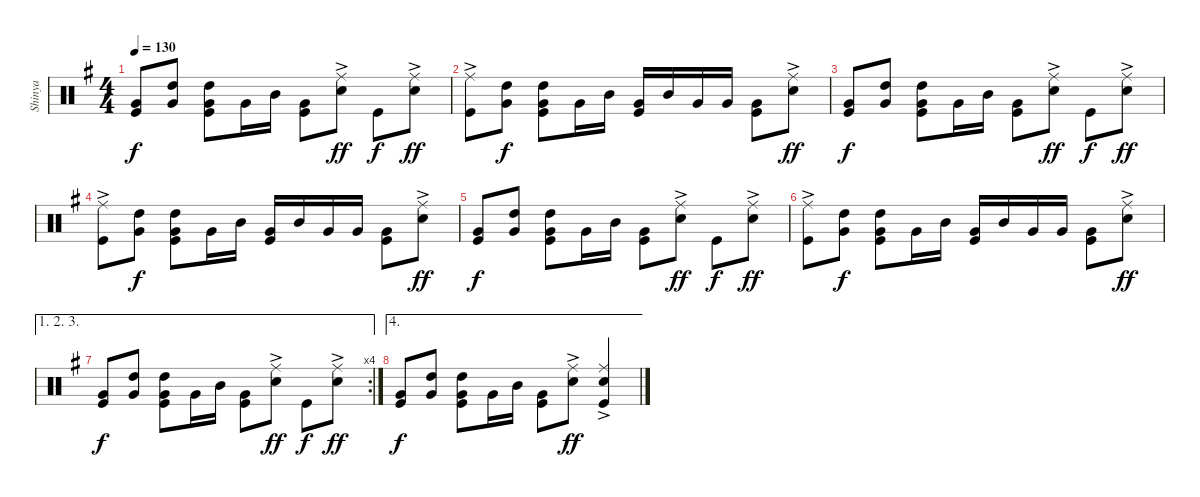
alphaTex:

\track ("Shinya" "Shinya") {instrument percussion}
\staff {score}
\articulation defaults
\ts (4 4)
\tempo 130
\clef neutral
\ks eminor
("Very Low Tom (hit)" "Kick (hit)").8{dy f} ("High Tom (hit)" "Very Low Tom (hit)").8 ("High Tom (hit)" "Very Low Tom (hit)" "Kick (hit)").8 "Very Low Tom (hit)".16 "Mid Tom (hit)".16 ("Very Low Tom (hit)" "Kick (hit)").8 ("Ride (middle)"{ac} "Snare (hit) 2").8{dy ff} "Kick (hit)".8{dy f} ("Ride (middle)"{ac} "Snare (hit) 2").8{dy ff} |
("Ride (middle)"{ac} "Kick (hit)").8 ("High Tom (hit)" "Very Low Tom (hit)").8{dy f} ("High Tom (hit)" "Very Low Tom (hit)" "Kick (hit)").8 "Very Low Tom (hit)".16 "Mid Tom (hit)".16 ("Very Low Tom (hit)" "Kick (hit)").16 "Mid Tom (hit)".16 "Very Low Tom (hit)".16 "Very Low Tom (hit)".16 ("Very Low Tom (hit)" "Kick (hit)").8 ("Ride (middle)"{ac} "Snare (hit) 2").8{dy ff} |
("Very Low Tom (hit)" "Kick (hit)").8{dy f} ("High Tom (hit)" "Very Low Tom (hit)").8 ("High Tom (hit)" "Very Low Tom (hit)" "Kick (hit)").8 "Very Low Tom (hit)".16 "Mid Tom (hit)".16 ("Very Low Tom (hit)" "Kick (hit)").8 ("Ride (middle)"{ac} "Snare (hit) 2").8{dy ff} "Kick (hit)".8{dy f} ("Ride (middle)"{ac} "Snare (hit) 2").8{dy ff} |
("Ride (middle)"{ac} "Kick (hit)").8 ("High Tom (hit)" "Very Low Tom (hit)").8{dy f} ("High Tom (hit)" "Very Low Tom (hit)" "Kick (hit)").8 "Very Low Tom (hit)".16 "Mid Tom (hit)".16 ("Very Low Tom (hit)" "Kick (hit)").16 "Mid Tom (hit)".16 "Very Low Tom (hit)".16 "Very Low Tom (hit)".16 ("Very Low Tom (hit)" "Kick (hit)").8 ("Ride (middle)"{ac} "Snare (hit) 2").8{dy ff} |
("Very Low Tom (hit)" "Kick (hit)").8{dy f} ("High Tom (hit)" "Very Low Tom (hit)").8 ("High Tom (hit)" "Very Low Tom (hit)" "Kick (hit)").8 "Very Low Tom (hit)".16 "Mid Tom (hit)".16 ("Very Low Tom (hit)" "Kick (hit)").8 ("Ride (middle)"{ac} "Snare (hit) 2").8{dy ff} "Kick (hit)".8{dy f} ("Ride (middle)"{ac} "Snare (hit) 2").8{dy ff} |
("Ride (middle)"{ac} "Kick (hit)").8 ("High Tom (hit)" "Very Low Tom (hit)").8{dy f} ("High Tom (hit)" "Very Low Tom (hit)" "Kick (hit)").8 "Very Low Tom (hit)".16 "Mid Tom (hit)".16 ("Very Low Tom (hit)" "Kick (hit)").16 "Mid Tom (hit)".16 "Very Low Tom (hit)".16 "Very Low Tom (hit)".16 ("Very Low Tom (hit)" "Kick (hit)").8 ("Ride (middle)"{ac} "Snare (hit) 2").8{dy ff} |
\ae (1 2 3)
\rc 4
("Very Low Tom (hit)" "Kick (hit)").8{dy f} ("High Tom (hit)" "Very Low Tom (hit)").8 ("High Tom (hit)" "Very Low Tom (hit)" "Kick (hit)").8 "Very Low Tom (hit)".16 "Mid Tom (hit)".16 ("Very Low Tom (hit)" "Kick (hit)").8 ("Ride (middle)"{ac} "Snare (hit) 2").8{dy ff} "Kick (hit)".8{dy f} ("Ride (middle)"{ac} "Snare (hit) 2").8{dy ff} |
\ae 4
("Very Low Tom (hit)" "Kick (hit)").8{dy f} ("High Tom (hit)" "Very Low Tom (hit)").8 ("High Tom (hit)" "Very Low Tom (hit)" "Kick (hit)").8 "Very Low Tom (hit)".16 "Mid Tom (hit)".16 ("Very Low Tom (hit)" "Kick (hit)").8 ("Ride (middle)"{ac} "Snare (hit) 2").8{dy ff} ("Ride (middle)"{ac} "Snare (hit) 2" "Kick (hit)").4
